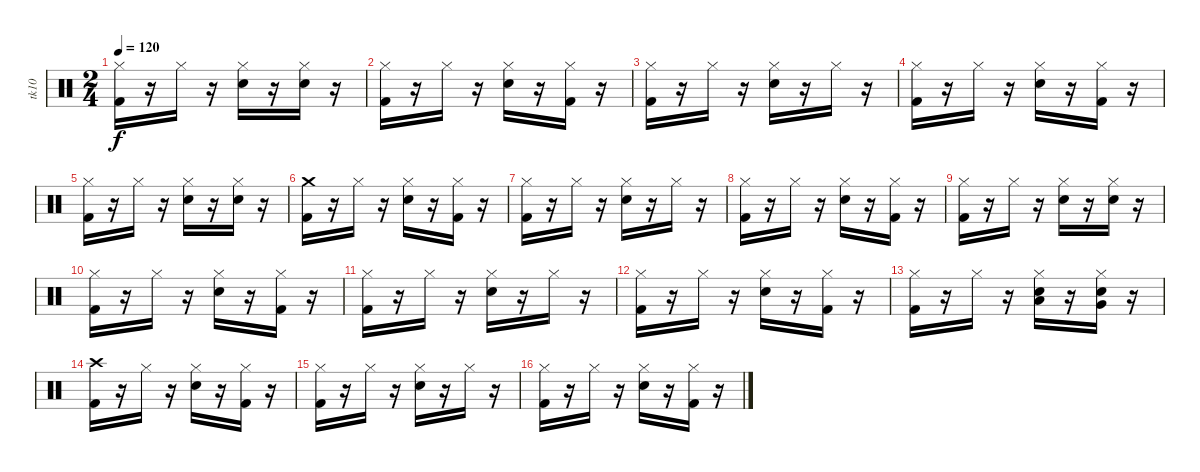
\track ("tk10" "tk10") {instrument percussion}
\staff {score}
\articulation defaults
\ts (2 4)
\tempo 120
\clef neutral
\ks c
("Kick (hit) 2" "Hi-Hat (closed)").16{dy f} r.16 "Hi-Hat (closed)".16 r.16 ("Hi-Hat (closed)" "Snare (hit) 2").16 r.16 ("Hi-Hat (closed)" "Snare (hit) 2").16 r.16 |
("Hi-Hat (closed)" "Kick (hit) 2").16 r.16 "Hi-Hat (closed)".16 r.16 ("Snare (hit) 2" "Hi-Hat (closed)").16 r.16 ("Hi-Hat (closed)" "Kick (hit) 2").16 r.16 |
("Hi-Hat (closed)" "Kick (hit) 2").16 r.16 "Hi-Hat (closed)".16 r.16 ("Snare (hit) 2" "Hi-Hat (closed)").16 r.16 "Hi-Hat (closed)".16 r.16 |
("Hi-Hat (closed)" "Kick (hit) 2").16 r.16 "Hi-Hat (closed)".16 r.16 ("Snare (hit) 2" "Hi-Hat (closed)").16 r.16 ("Kick (hit) 2" "Hi-Hat (closed)").16 r.16 |
("Hi-Hat (closed)" "Kick (hit) 2").16 r.16 "Hi-Hat (closed)".16 r.16 ("Hi-Hat (closed)" "Snare (hit) 2").16 r.16 ("Hi-Hat (closed)" "Snare (hit) 2").16 r.16 |
("Crash medium (hit)" "Kick (hit) 2").16 r.16 "Hi-Hat (closed)".16 r.16 ("Snare (hit) 2" "Hi-Hat (closed)").16 r.16 ("Hi-Hat (closed)" "Kick (hit) 2").16 r.16 |
("Hi-Hat (closed)" "Kick (hit) 2").16 r.16 "Hi-Hat (closed)".16 r.16 ("Hi-Hat (closed)" "Snare (hit) 2").16 r.16 "Hi-Hat (closed)".16 r.16 |
("Kick (hit) 2" "Hi-Hat (closed)").16 r.16 "Hi-Hat (closed)".16 r.16 ("Hi-Hat (closed)" "Snare (hit) 2").16 r.16 ("Hi-Hat (closed)" "Kick (hit) 2").16 r.16 |
("Hi-Hat (closed)" "Kick (hit) 2").16 r.16 "Hi-Hat (closed)".16 r.16 ("Snare (hit) 2" "Hi-Hat (closed)").16 r.16 ("Snare (hit) 2" "Hi-Hat (closed)").16 r.16 |
("Kick (hit) 2" "Hi-Hat (closed)").16 r.16 "Hi-Hat (closed)".16 r.16 ("Snare (hit) 2" "Hi-Hat (closed)").16 r.16 ("Kick (hit) 2" "Hi-Hat (closed)").16 r.16 |
("Hi-Hat (closed)" "Kick (hit) 2").16 r.16 "Hi-Hat (closed)".16 r.16 ("Hi-Hat (closed)" "Snare (hit) 2").16 r.16 "Hi-Hat (closed)".16 r.16 |
("Hi-Hat (closed)" "Kick (hit) 2").16 r.16 "Hi-Hat (closed)".16 r.16 ("Snare (hit) 2" "Hi-Hat (closed)").16 r.16 ("Kick (hit) 2" "Hi-Hat (closed)").16 r.16 |
("Kick (hit) 2" "Hi-Hat (closed)").16 r.16 "Hi-Hat (closed)".16 r.16 ("Hi-Hat (closed)" "Snare (hit) 2" "Low Tom (hit)").16 r.16 ("Very Low Tom (hit)" "Hi-Hat (closed)" "Snare (hit) 2").16 r.16 |
("Crash high (hit)" "Kick (hit) 2").16 r.16 "Hi-Hat (closed)".16 r.16 ("Hi-Hat (closed)" "Snare (hit) 2").16 r.16 ("Kick (hit) 2" "Hi-Hat (closed)").16 r.16 |
("Hi-Hat (closed)" "Kick (hit) 2").16 r.16 "Hi-Hat (closed)".16 r.16 ("Snare (hit) 2" "Hi-Hat (closed)").16 r.16 "Hi-Hat (closed)".16 r.16 |
("Hi-Hat (closed)" "Kick (hit) 2").16 r.16 "Hi-Hat (closed)".16 r.16 ("Snare (hit) 2" "Hi-Hat (closed)").16 r.16 ("Kick (hit) 2" "Hi-Hat (closed)").16 r.16
